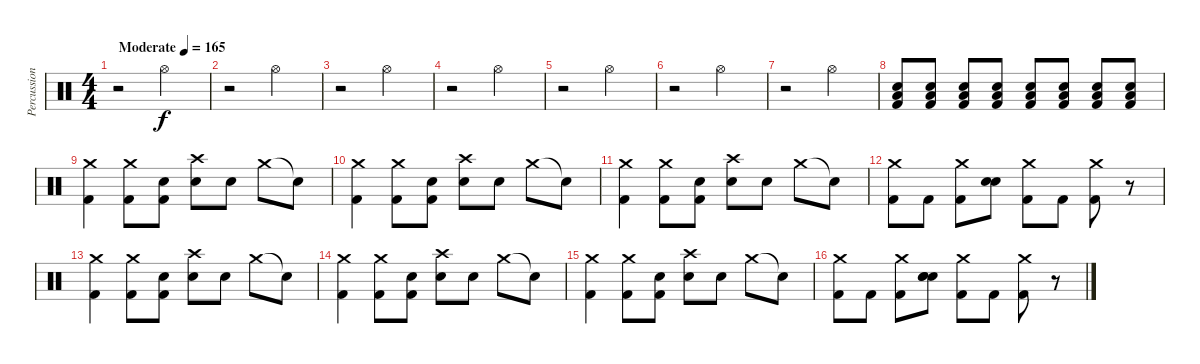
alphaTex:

\track ("Percussion" "Percussion") {instrument percussion}
\staff {score}
\articulation defaults
\ts (4 4)
\tempo (165 "Moderate")
\clef neutral
\ks c
r.2{dy f} "Hi-Hat (open)".2 |
r.2 "Hi-Hat (open)".2 |
r.2 "Hi-Hat (open)".2 |
r.2 "Hi-Hat (open)".2 |
r.2 "Hi-Hat (open)".2 |
r.2 "Hi-Hat (open)".2 |
r.2 "Hi-Hat (open)".2 |
("Low Floor Tom (hit)" "Snare (hit)" "Kick (hit) 2").8 ("Low Floor Tom (hit)" "Snare (hit)" "Kick (hit) 2").8 ("Low Floor Tom (hit)" "Snare (hit)" "Kick (hit) 2").8 ("Low Floor Tom (hit)" "Electric Snare (hit)" "Kick (hit) 2").8 ("Low Floor Tom (hit)" "Snare (hit)" "Kick (hit) 2").8 ("Low Floor Tom (hit)" "Electric Snare (hit)" "Kick (hit) 2").8 ("Low Floor Tom (hit)" "Snare (hit)" "Kick (hit) 2").8 ("Low Floor Tom (hit)" "Electric Snare (hit)" "Kick (hit) 2").8 |
("Crash medium (hit)" "Kick (hit) 2").4 ("Crash medium (hit)" "Kick (hit) 2").8 ("Snare (hit)" "Kick (hit) 2").8 ("Crash high (hit)" "Electric Snare (hit)").8 "Snare (hit)".8 "Crash medium (hit)".8 "Snare (hit)"{t}.8 |
("Crash medium (hit)" "Kick (hit) 2").4 ("Crash medium (hit)" "Kick (hit) 2").8 ("Snare (hit)" "Kick (hit) 2").8 ("Crash high (hit)" "Electric Snare (hit)").8 "Snare (hit)".8 "Crash medium (hit)".8 "Snare (hit)"{t}.8 |
("Crash medium (hit)" "Kick (hit) 2").4 ("Crash medium (hit)" "Kick (hit) 2").8 ("Snare (hit)" "Kick (hit) 2").8 ("Crash high (hit)" "Electric Snare (hit)").8 "Snare (hit)".8 "Crash medium (hit)".8 "Snare (hit)"{t}.8 |
("Crash medium (hit)" "Kick (hit) 2").8 "Kick (hit) 2".8 ("Crash medium (hit)" "Kick (hit) 2").8 ("Snare (hit)" "Electric Snare (hit)").8 ("Crash medium (hit)" "Kick (hit) 2").8 "Kick (hit) 2".8 ("Crash medium (hit)" "Kick (hit) 2").8 r.8 |
("Crash medium (hit)" "Kick (hit) 2").4 ("Crash medium (hit)" "Kick (hit) 2").8 ("Snare (hit)" "Kick (hit) 2").8 ("Crash high (hit)" "Electric Snare (hit)").8 "Snare (hit)".8 "Crash medium (hit)".8 "Snare (hit)"{t}.8 |
("Crash medium (hit)" "Kick (hit) 2").4 ("Crash medium (hit)" "Kick (hit) 2").8 ("Snare (hit)" "Kick (hit) 2").8 ("Crash high (hit)" "Electric Snare (hit)").8 "Snare (hit)".8 "Crash medium (hit)".8 "Snare (hit)"{t}.8 |
("Crash medium (hit)" "Kick (hit) 2").4 ("Crash medium (hit)" "Kick (hit) 2").8 ("Snare (hit)" "Kick (hit) 2").8 ("Crash high (hit)" "Electric Snare (hit)").8 "Snare (hit)".8 "Crash medium (hit)".8 "Snare (hit)"{t}.8 |
("Crash medium (hit)" "Kick (hit) 2").8 "Kick (hit) 2".8 ("Crash medium (hit)" "Kick (hit) 2").8 ("Snare (hit)" "Electric Snare (hit)" "Snare (hit)").8 ("Crash medium (hit)" "Kick (hit) 2").8 "Kick (hit) 2".8 ("Crash medium (hit)" "Kick (hit) 2").8 r.8
